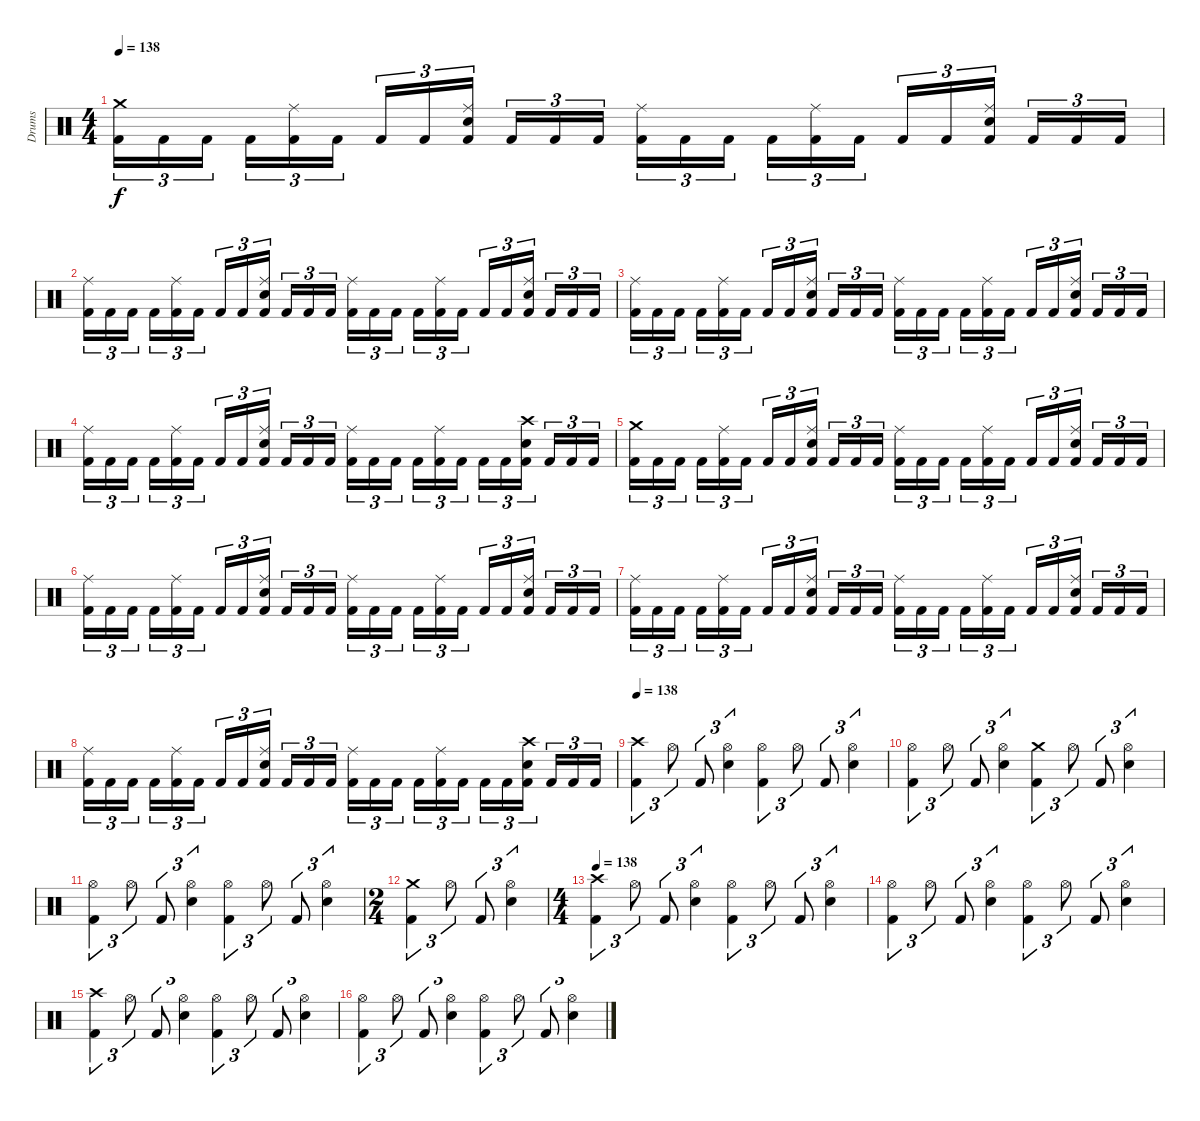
\track ("Drums" "Drums") {instrument percussion}
\staff {score}
\articulation defaults
\ts (4 4)
\tempo 138
\clef neutral
\ks c
("Kick (hit) 2" "Crash medium (hit)").16{tu (3 2) dy f} "Kick (hit) 2".16{tu (3 2)} "Kick (hit) 2".16{tu (3 2)} "Kick (hit) 2".16{tu (3 2)} ("Kick (hit) 2" "Ride (middle)").16{tu (3 2)} "Kick (hit) 2".16{tu (3 2)} "Kick (hit) 2".16{tu (3 2)} "Kick (hit) 2".16{tu (3 2)} ("Kick (hit) 2" "Electric Snare (hit)" "Ride (middle)").16{tu (3 2)} "Kick (hit) 2".16{tu (3 2)} "Kick (hit) 2".16{tu (3 2)} "Kick (hit) 2".16{tu (3 2)} ("Kick (hit) 2" "Ride (middle)").16{tu (3 2)} "Kick (hit) 2".16{tu (3 2)} "Kick (hit) 2".16{tu (3 2)} "Kick (hit) 2".16{tu (3 2)} ("Kick (hit) 2" "Ride (middle)").16{tu (3 2)} "Kick (hit) 2".16{tu (3 2)} "Kick (hit) 2".16{tu (3 2)} "Kick (hit) 2".16{tu (3 2)} ("Kick (hit) 2" "Electric Snare (hit)" "Ride (middle)").16{tu (3 2)} "Kick (hit) 2".16{tu (3 2)} "Kick (hit) 2".16{tu (3 2)} "Kick (hit) 2".16{tu (3 2)} |
("Kick (hit) 2" "Ride (middle)").16{tu (3 2)} "Kick (hit) 2".16{tu (3 2)} "Kick (hit) 2".16{tu (3 2)} "Kick (hit) 2".16{tu (3 2)} ("Kick (hit) 2" "Ride (middle)").16{tu (3 2)} "Kick (hit) 2".16{tu (3 2)} "Kick (hit) 2".16{tu (3 2)} "Kick (hit) 2".16{tu (3 2)} ("Kick (hit) 2" "Electric Snare (hit)" "Ride (middle)").16{tu (3 2)} "Kick (hit) 2".16{tu (3 2)} "Kick (hit) 2".16{tu (3 2)} "Kick (hit) 2".16{tu (3 2)} ("Kick (hit) 2" "Ride (middle)").16{tu (3 2)} "Kick (hit) 2".16{tu (3 2)} "Kick (hit) 2".16{tu (3 2)} "Kick (hit) 2".16{tu (3 2)} ("Kick (hit) 2" "Ride (middle)").16{tu (3 2)} "Kick (hit) 2".16{tu (3 2)} "Kick (hit) 2".16{tu (3 2)} "Kick (hit) 2".16{tu (3 2)} ("Kick (hit) 2" "Electric Snare (hit)" "Ride (middle)").16{tu (3 2)} "Kick (hit) 2".16{tu (3 2)} "Kick (hit) 2".16{tu (3 2)} "Kick (hit) 2".16{tu (3 2)} |
("Kick (hit) 2" "Ride (middle)").16{tu (3 2)} "Kick (hit) 2".16{tu (3 2)} "Kick (hit) 2".16{tu (3 2)} "Kick (hit) 2".16{tu (3 2)} ("Kick (hit) 2" "Ride (middle)").16{tu (3 2)} "Kick (hit) 2".16{tu (3 2)} "Kick (hit) 2".16{tu (3 2)} "Kick (hit) 2".16{tu (3 2)} ("Kick (hit) 2" "Electric Snare (hit)" "Ride (middle)").16{tu (3 2)} "Kick (hit) 2".16{tu (3 2)} "Kick (hit) 2".16{tu (3 2)} "Kick (hit) 2".16{tu (3 2)} ("Kick (hit) 2" "Ride (middle)").16{tu (3 2)} "Kick (hit) 2".16{tu (3 2)} "Kick (hit) 2".16{tu (3 2)} "Kick (hit) 2".16{tu (3 2)} ("Kick (hit) 2" "Ride (middle)").16{tu (3 2)} "Kick (hit) 2".16{tu (3 2)} "Kick (hit) 2".16{tu (3 2)} "Kick (hit) 2".16{tu (3 2)} ("Kick (hit) 2" "Electric Snare (hit)" "Ride (middle)").16{tu (3 2)} "Kick (hit) 2".16{tu (3 2)} "Kick (hit) 2".16{tu (3 2)} "Kick (hit) 2".16{tu (3 2)} |
("Kick (hit) 2" "Ride (middle)").16{tu (3 2)} "Kick (hit) 2".16{tu (3 2)} "Kick (hit) 2".16{tu (3 2)} "Kick (hit) 2".16{tu (3 2)} ("Kick (hit) 2" "Ride (middle)").16{tu (3 2)} "Kick (hit) 2".16{tu (3 2)} "Kick (hit) 2".16{tu (3 2)} "Kick (hit) 2".16{tu (3 2)} ("Kick (hit) 2" "Electric Snare (hit)" "Ride (middle)").16{tu (3 2)} "Kick (hit) 2".16{tu (3 2)} "Kick (hit) 2".16{tu (3 2)} "Kick (hit) 2".16{tu (3 2)} ("Kick (hit) 2" "Ride (middle)").16{tu (3 2)} "Kick (hit) 2".16{tu (3 2)} "Kick (hit) 2".16{tu (3 2)} "Kick (hit) 2".16{tu (3 2)} ("Kick (hit) 2" "Ride (middle)").16{tu (3 2)} "Kick (hit) 2".16{tu (3 2)} "Kick (hit) 2".16{tu (3 2)} "Kick (hit) 2".16{tu (3 2)} ("Kick (hit) 2" "Electric Snare (hit)" "Crash high (hit)").16{tu (3 2)} "Kick (hit) 2".16{tu (3 2)} "Kick (hit) 2".16{tu (3 2)} "Kick (hit) 2".16{tu (3 2)} |
("Kick (hit) 2" "Crash medium (hit)").16{tu (3 2)} "Kick (hit) 2".16{tu (3 2)} "Kick (hit) 2".16{tu (3 2)} "Kick (hit) 2".16{tu (3 2)} ("Kick (hit) 2" "Ride (middle)").16{tu (3 2)} "Kick (hit) 2".16{tu (3 2)} "Kick (hit) 2".16{tu (3 2)} "Kick (hit) 2".16{tu (3 2)} ("Kick (hit) 2" "Electric Snare (hit)" "Ride (middle)").16{tu (3 2)} "Kick (hit) 2".16{tu (3 2)} "Kick (hit) 2".16{tu (3 2)} "Kick (hit) 2".16{tu (3 2)} ("Kick (hit) 2" "Ride (middle)").16{tu (3 2)} "Kick (hit) 2".16{tu (3 2)} "Kick (hit) 2".16{tu (3 2)} "Kick (hit) 2".16{tu (3 2)} ("Kick (hit) 2" "Ride (middle)").16{tu (3 2)} "Kick (hit) 2".16{tu (3 2)} "Kick (hit) 2".16{tu (3 2)} "Kick (hit) 2".16{tu (3 2)} ("Kick (hit) 2" "Electric Snare (hit)" "Ride (middle)").16{tu (3 2)} "Kick (hit) 2".16{tu (3 2)} "Kick (hit) 2".16{tu (3 2)} "Kick (hit) 2".16{tu (3 2)} |
("Kick (hit) 2" "Ride (middle)").16{tu (3 2)} "Kick (hit) 2".16{tu (3 2)} "Kick (hit) 2".16{tu (3 2)} "Kick (hit) 2".16{tu (3 2)} ("Kick (hit) 2" "Ride (middle)").16{tu (3 2)} "Kick (hit) 2".16{tu (3 2)} "Kick (hit) 2".16{tu (3 2)} "Kick (hit) 2".16{tu (3 2)} ("Kick (hit) 2" "Electric Snare (hit)" "Ride (middle)").16{tu (3 2)} "Kick (hit) 2".16{tu (3 2)} "Kick (hit) 2".16{tu (3 2)} "Kick (hit) 2".16{tu (3 2)} ("Kick (hit) 2" "Ride (middle)").16{tu (3 2)} "Kick (hit) 2".16{tu (3 2)} "Kick (hit) 2".16{tu (3 2)} "Kick (hit) 2".16{tu (3 2)} ("Kick (hit) 2" "Ride (middle)").16{tu (3 2)} "Kick (hit) 2".16{tu (3 2)} "Kick (hit) 2".16{tu (3 2)} "Kick (hit) 2".16{tu (3 2)} ("Kick (hit) 2" "Electric Snare (hit)" "Ride (middle)").16{tu (3 2)} "Kick (hit) 2".16{tu (3 2)} "Kick (hit) 2".16{tu (3 2)} "Kick (hit) 2".16{tu (3 2)} |
("Kick (hit) 2" "Ride (middle)").16{tu (3 2)} "Kick (hit) 2".16{tu (3 2)} "Kick (hit) 2".16{tu (3 2)} "Kick (hit) 2".16{tu (3 2)} ("Kick (hit) 2" "Ride (middle)").16{tu (3 2)} "Kick (hit) 2".16{tu (3 2)} "Kick (hit) 2".16{tu (3 2)} "Kick (hit) 2".16{tu (3 2)} ("Kick (hit) 2" "Electric Snare (hit)" "Ride (middle)").16{tu (3 2)} "Kick (hit) 2".16{tu (3 2)} "Kick (hit) 2".16{tu (3 2)} "Kick (hit) 2".16{tu (3 2)} ("Kick (hit) 2" "Ride (middle)").16{tu (3 2)} "Kick (hit) 2".16{tu (3 2)} "Kick (hit) 2".16{tu (3 2)} "Kick (hit) 2".16{tu (3 2)} ("Kick (hit) 2" "Ride (middle)").16{tu (3 2)} "Kick (hit) 2".16{tu (3 2)} "Kick (hit) 2".16{tu (3 2)} "Kick (hit) 2".16{tu (3 2)} ("Kick (hit) 2" "Electric Snare (hit)" "Ride (middle)").16{tu (3 2)} "Kick (hit) 2".16{tu (3 2)} "Kick (hit) 2".16{tu (3 2)} "Kick (hit) 2".16{tu (3 2)} |
("Kick (hit) 2" "Ride (middle)").16{tu (3 2)} "Kick (hit) 2".16{tu (3 2)} "Kick (hit) 2".16{tu (3 2)} "Kick (hit) 2".16{tu (3 2)} ("Kick (hit) 2" "Ride (middle)").16{tu (3 2)} "Kick (hit) 2".16{tu (3 2)} "Kick (hit) 2".16{tu (3 2)} "Kick (hit) 2".16{tu (3 2)} ("Kick (hit) 2" "Electric Snare (hit)" "Ride (middle)").16{tu (3 2)} "Kick (hit) 2".16{tu (3 2)} "Kick (hit) 2".16{tu (3 2)} "Kick (hit) 2".16{tu (3 2)} ("Kick (hit) 2" "Ride (middle)").16{tu (3 2)} "Kick (hit) 2".16{tu (3 2)} "Kick (hit) 2".16{tu (3 2)} "Kick (hit) 2".16{tu (3 2)} ("Kick (hit) 2" "Ride (middle)").16{tu (3 2)} "Kick (hit) 2".16{tu (3 2)} "Kick (hit) 2".16{tu (3 2)} "Kick (hit) 2".16{tu (3 2)} ("Kick (hit) 2" "Electric Snare (hit)" "Crash high (hit)").16{tu (3 2)} "Kick (hit) 2".16{tu (3 2)} "Kick (hit) 2".16{tu (3 2)} "Kick (hit) 2".16{tu (3 2)} |
\tempo 138
("Kick (hit) 2" "Crash high (hit)").4{tu (3 2)} "Hi-Hat (open)".8{tu (3 2)} "Kick (hit) 2".8{tu (3 2)} ("Electric Snare (hit)" "Hi-Hat (open)").4{tu (3 2)} ("Kick (hit) 2" "Hi-Hat (open)").4{tu (3 2)} "Hi-Hat (open)".8{tu (3 2)} "Kick (hit) 2".8{tu (3 2)} ("Electric Snare (hit)" "Hi-Hat (open)").4{tu (3 2)} |
("Kick (hit) 2" "Hi-Hat (open)").4{tu (3 2)} "Hi-Hat (open)".8{tu (3 2)} "Kick (hit) 2".8{tu (3 2)} ("Electric Snare (hit)" "Hi-Hat (open)").4{tu (3 2)} ("Kick (hit) 2" "Crash medium (hit)").4{tu (3 2)} "Hi-Hat (open)".8{tu (3 2)} "Kick (hit) 2".8{tu (3 2)} ("Electric Snare (hit)" "Hi-Hat (open)").4{tu (3 2)} |
("Kick (hit) 2" "Hi-Hat (open)").4{tu (3 2)} "Hi-Hat (open)".8{tu (3 2)} "Kick (hit) 2".8{tu (3 2)} ("Electric Snare (hit)" "Hi-Hat (open)").4{tu (3 2)} ("Kick (hit) 2" "Hi-Hat (open)").4{tu (3 2)} "Hi-Hat (open)".8{tu (3 2)} "Kick (hit) 2".8{tu (3 2)} ("Electric Snare (hit)" "Hi-Hat (open)").4{tu (3 2)} |
\ts (2 4)
("Kick (hit) 2" "Crash medium (hit)").4{tu (3 2)} "Hi-Hat (open)".8{tu (3 2)} "Kick (hit) 2".8{tu (3 2)} ("Electric Snare (hit)" "Hi-Hat (open)").4{tu (3 2)} |
\ts (4 4)
\tempo 138
("Kick (hit) 2" "Crash high (hit)").4{tu (3 2)} "Hi-Hat (open)".8{tu (3 2)} "Kick (hit) 2".8{tu (3 2)} ("Electric Snare (hit)" "Hi-Hat (open)").4{tu (3 2)} ("Kick (hit) 2" "Hi-Hat (open)").4{tu (3 2)} "Hi-Hat (open)".8{tu (3 2)} "Kick (hit) 2".8{tu (3 2)} ("Electric Snare (hit)" "Hi-Hat (open)").4{tu (3 2)} |
("Kick (hit) 2" "Hi-Hat (open)").4{tu (3 2)} "Hi-Hat (open)".8{tu (3 2)} "Kick (hit) 2".8{tu (3 2)} ("Electric Snare (hit)" "Hi-Hat (open)").4{tu (3 2)} ("Kick (hit) 2" "Hi-Hat (open)").4{tu (3 2)} "Hi-Hat (open)".8{tu (3 2)} "Kick (hit) 2".8{tu (3 2)} ("Electric Snare (hit)" "Hi-Hat (open)").4{tu (3 2)} |
("Kick (hit) 2" "Crash high (hit)").4{tu (3 2)} "Hi-Hat (open)".8{tu (3 2)} "Kick (hit) 2".8{tu (3 2)} ("Electric Snare (hit)" "Hi-Hat (open)").4{tu (3 2)} ("Kick (hit) 2" "Hi-Hat (open)").4{tu (3 2)} "Hi-Hat (open)".8{tu (3 2)} "Kick (hit) 2".8{tu (3 2)} ("Electric Snare (hit)" "Hi-Hat (open)").4{tu (3 2)} |
("Kick (hit) 2" "Hi-Hat (open)").4{tu (3 2)} "Hi-Hat (open)".8{tu (3 2)} "Kick (hit) 2".8{tu (3 2)} ("Electric Snare (hit)" "Hi-Hat (open)").4{tu (3 2)} ("Kick (hit) 2" "Hi-Hat (open)").4{tu (3 2)} "Hi-Hat (open)".8{tu (3 2)} "Kick (hit) 2".8{tu (3 2)} ("Electric Snare (hit)" "Hi-Hat (open)").4{tu (3 2)}
